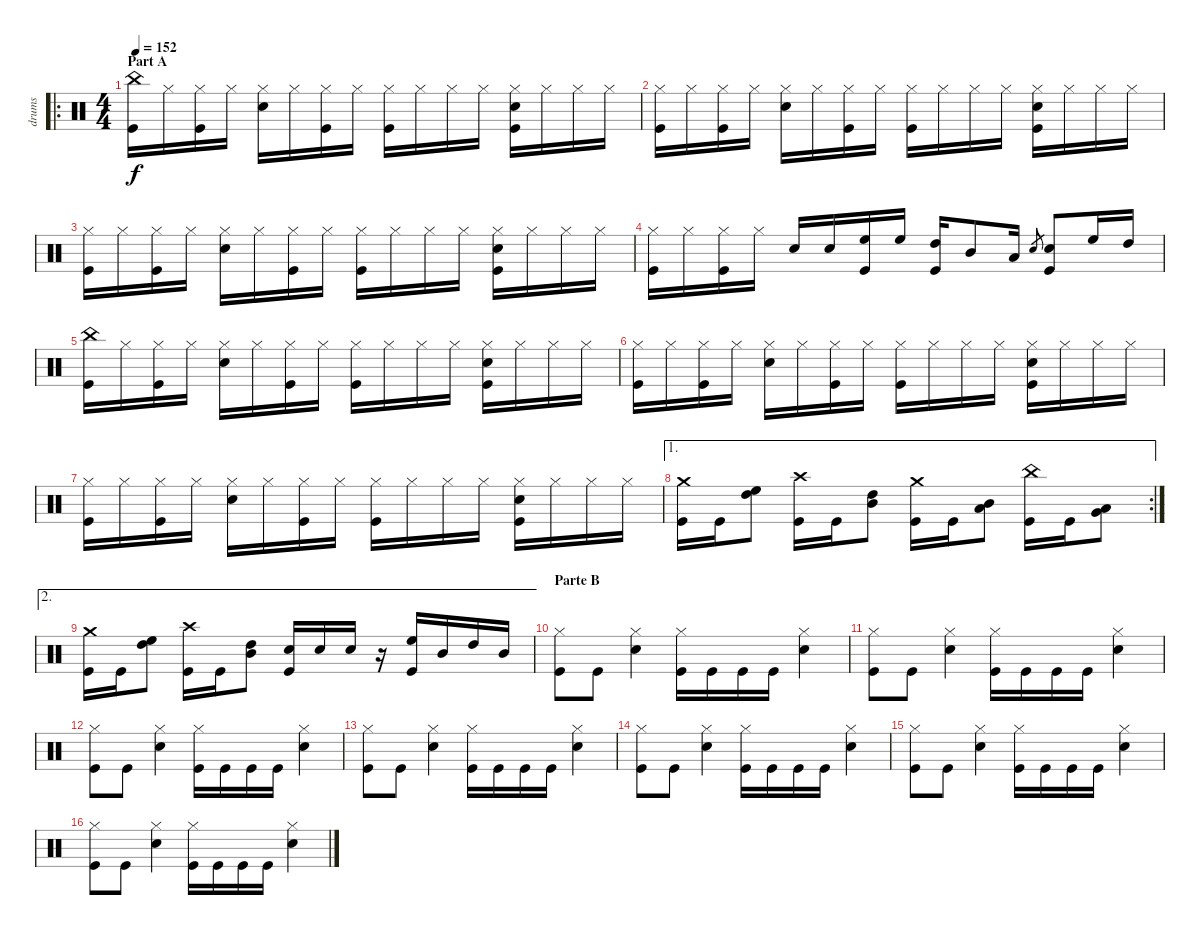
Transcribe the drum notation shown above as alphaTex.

\track ("drums" "drums") {instrument percussion}
\staff {score}
\articulation defaults
\ro
\ts (4 4)
\section ("" "Part A")
\tempo 152
\clef neutral
\ks c
("Kick (hit)" "China (hit)").16{dy f} "Hi-Hat (closed)".16 ("Kick (hit)" "Hi-Hat (closed)").16 "Hi-Hat (closed)".16 ("Snare (hit) 2" "Hi-Hat (closed)").16 "Hi-Hat (closed)".16 ("Kick (hit)" "Hi-Hat (closed)").16 "Hi-Hat (closed)".16 ("Kick (hit)" "Hi-Hat (closed)").16 "Hi-Hat (closed)".16 "Hi-Hat (closed)".16 "Hi-Hat (closed)".16 ("Kick (hit)" "Snare (hit) 2" "Hi-Hat (closed)").16 "Hi-Hat (closed)".16 "Hi-Hat (closed)".16 "Hi-Hat (closed)".16 |
("Kick (hit)" "Hi-Hat (closed)").16 "Hi-Hat (closed)".16 ("Kick (hit)" "Hi-Hat (closed)").16 "Hi-Hat (closed)".16 ("Snare (hit) 2" "Hi-Hat (closed)").16 "Hi-Hat (closed)".16 ("Kick (hit)" "Hi-Hat (closed)").16 "Hi-Hat (closed)".16 ("Kick (hit)" "Hi-Hat (closed)").16 "Hi-Hat (closed)".16 "Hi-Hat (closed)".16 "Hi-Hat (closed)".16 ("Kick (hit)" "Snare (hit) 2" "Hi-Hat (closed)").16 "Hi-Hat (closed)".16 "Hi-Hat (closed)".16 "Hi-Hat (closed)".16 |
("Kick (hit)" "Hi-Hat (closed)").16 "Hi-Hat (closed)".16 ("Kick (hit)" "Hi-Hat (closed)").16 "Hi-Hat (closed)".16 ("Snare (hit) 2" "Hi-Hat (closed)").16 "Hi-Hat (closed)".16 ("Kick (hit)" "Hi-Hat (closed)").16 "Hi-Hat (closed)".16 ("Kick (hit)" "Hi-Hat (closed)").16 "Hi-Hat (closed)".16 "Hi-Hat (closed)".16 "Hi-Hat (closed)".16 ("Kick (hit)" "Snare (hit) 2" "Hi-Hat (closed)").16 "Hi-Hat (closed)".16 "Hi-Hat (closed)".16 "Hi-Hat (closed)".16 |
("Kick (hit)" "Hi-Hat (closed)").16 "Hi-Hat (closed)".16 ("Kick (hit)" "Hi-Hat (closed)").16 "Hi-Hat (closed)".16 "Snare (hit) 2".16 "Snare (hit) 2".16 ("Kick (hit)" "High Floor Tom (hit)").16 "High Floor Tom (hit)".16 ("Kick (hit)" "High Tom (hit)").16 "Mid Tom (hit)".8 "Low Tom (hit)".16 "Snare (hit) 2".8{gr} ("Kick (hit)" "Snare (hit) 2").8 "High Floor Tom (hit)".16 "High Tom (hit)".16 |
("Kick (hit)" "China (hit)").16 "Hi-Hat (closed)".16 ("Kick (hit)" "Hi-Hat (closed)").16 "Hi-Hat (closed)".16 ("Snare (hit) 2" "Hi-Hat (closed)").16 "Hi-Hat (closed)".16 ("Kick (hit)" "Hi-Hat (closed)").16 "Hi-Hat (closed)".16 ("Kick (hit)" "Hi-Hat (closed)").16 "Hi-Hat (closed)".16 "Hi-Hat (closed)".16 "Hi-Hat (closed)".16 ("Kick (hit)" "Snare (hit) 2" "Hi-Hat (closed)").16 "Hi-Hat (closed)".16 "Hi-Hat (closed)".16 "Hi-Hat (closed)".16 |
("Kick (hit)" "Hi-Hat (closed)").16 "Hi-Hat (closed)".16 ("Kick (hit)" "Hi-Hat (closed)").16 "Hi-Hat (closed)".16 ("Snare (hit) 2" "Hi-Hat (closed)").16 "Hi-Hat (closed)".16 ("Kick (hit)" "Hi-Hat (closed)").16 "Hi-Hat (closed)".16 ("Kick (hit)" "Hi-Hat (closed)").16 "Hi-Hat (closed)".16 "Hi-Hat (closed)".16 "Hi-Hat (closed)".16 ("Kick (hit)" "Snare (hit) 2" "Hi-Hat (closed)").16 "Hi-Hat (closed)".16 "Hi-Hat (closed)".16 "Hi-Hat (closed)".16 |
("Kick (hit)" "Hi-Hat (closed)").16 "Hi-Hat (closed)".16 ("Kick (hit)" "Hi-Hat (closed)").16 "Hi-Hat (closed)".16 ("Snare (hit) 2" "Hi-Hat (closed)").16 "Hi-Hat (closed)".16 ("Kick (hit)" "Hi-Hat (closed)").16 "Hi-Hat (closed)".16 ("Kick (hit)" "Hi-Hat (closed)").16 "Hi-Hat (closed)".16 "Hi-Hat (closed)".16 "Hi-Hat (closed)".16 ("Kick (hit)" "Snare (hit) 2" "Hi-Hat (closed)").16 "Hi-Hat (closed)".16 "Hi-Hat (closed)".16 "Hi-Hat (closed)".16 |
\ae 1
\rc 2
("Kick (hit)" "Crash medium (hit)").16 "Kick (hit)".16 ("High Tom (hit)" "High Floor Tom (hit)").8 ("Kick (hit)" "Crash high (hit)").16 "Kick (hit)".16 ("Mid Tom (hit)" "High Tom (hit)").8 ("Kick (hit)" "Crash medium (hit)").16 "Kick (hit)".16 ("Low Tom (hit)" "Mid Tom (hit)").8 ("Kick (hit)" "China (hit)").16 "Kick (hit)".16 ("Very Low Tom (hit)" "Low Tom (hit)").8 |
\ae 2
("Kick (hit)" "Crash medium (hit)").16 "Kick (hit)".16 ("High Tom (hit)" "High Floor Tom (hit)").8 ("Kick (hit)" "Crash high (hit)").16 "Kick (hit)".16 ("Mid Tom (hit)" "High Tom (hit)").8 ("Kick (hit)" "Snare (hit) 2").16 "Snare (hit) 2".16 "Snare (hit) 2".16 r.16 ("Kick (hit)" "High Floor Tom (hit)").16 "Mid Tom (hit)".16 "High Tom (hit)".16 "Mid Tom (hit)".16 |
\section ("" "Parte B")
("Kick (hit)" "Hi-Hat (closed)").8 "Kick (hit)".8 ("Snare (hit) 2" "Hi-Hat (closed)").4 ("Kick (hit)" "Hi-Hat (closed)").16 "Kick (hit)".16 "Kick (hit)".16 "Kick (hit)".16 ("Snare (hit) 2" "Hi-Hat (closed)").4 |
("Kick (hit)" "Hi-Hat (closed)").8 "Kick (hit)".8 ("Snare (hit) 2" "Hi-Hat (closed)").4 ("Kick (hit)" "Hi-Hat (closed)").16 "Kick (hit)".16 "Kick (hit)".16 "Kick (hit)".16 ("Snare (hit) 2" "Hi-Hat (closed)").4 |
("Kick (hit)" "Hi-Hat (closed)").8 "Kick (hit)".8 ("Snare (hit) 2" "Hi-Hat (closed)").4 ("Kick (hit)" "Hi-Hat (closed)").16 "Kick (hit)".16 "Kick (hit)".16 "Kick (hit)".16 ("Snare (hit) 2" "Hi-Hat (closed)").4 |
("Kick (hit)" "Hi-Hat (closed)").8 "Kick (hit)".8 ("Snare (hit) 2" "Hi-Hat (closed)").4 ("Kick (hit)" "Hi-Hat (closed)").16 "Kick (hit)".16 "Kick (hit)".16 "Kick (hit)".16 ("Snare (hit) 2" "Hi-Hat (closed)").4 |
("Kick (hit)" "Hi-Hat (closed)").8 "Kick (hit)".8 ("Snare (hit) 2" "Hi-Hat (closed)").4 ("Kick (hit)" "Hi-Hat (closed)").16 "Kick (hit)".16 "Kick (hit)".16 "Kick (hit)".16 ("Snare (hit) 2" "Hi-Hat (closed)").4 |
("Kick (hit)" "Hi-Hat (closed)").8 "Kick (hit)".8 ("Snare (hit) 2" "Hi-Hat (closed)").4 ("Kick (hit)" "Hi-Hat (closed)").16 "Kick (hit)".16 "Kick (hit)".16 "Kick (hit)".16 ("Snare (hit) 2" "Hi-Hat (closed)").4 |
("Kick (hit)" "Hi-Hat (closed)").8 "Kick (hit)".8 ("Snare (hit) 2" "Hi-Hat (closed)").4 ("Kick (hit)" "Hi-Hat (closed)").16 "Kick (hit)".16 "Kick (hit)".16 "Kick (hit)".16 ("Snare (hit) 2" "Hi-Hat (closed)").4
